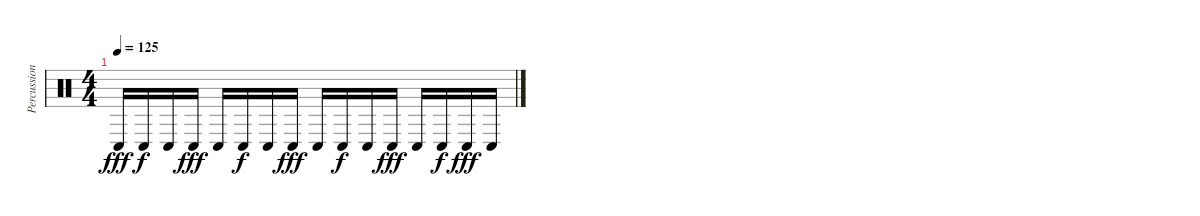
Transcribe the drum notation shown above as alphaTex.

\track ("Percussion" "Percussion") {instrument percussion}
\staff {score}
\articulation defaults
\ts (4 4)
\tempo 125
\clef neutral
\ks c "Conga low (hit)".16{dy fff volume 6} "Conga low (hit)".16{dy f} "Conga low (hit)".16 "Conga low (hit)".16{dy fff} "Conga low (hit)".16 "Conga low (hit)".16{dy f} "Conga low (hit)".16 "Conga low (hit)".16{dy fff} "Conga low (hit)".16{volume 5} "Conga low (hit)".16{dy f} "Conga low (hit)".16 "Conga low (hit)".16{dy fff} "Conga low (hit)".16 "Conga low (hit)".16{dy f} "Conga low (hit)".16{dy fff} "Conga low (hit)".16
